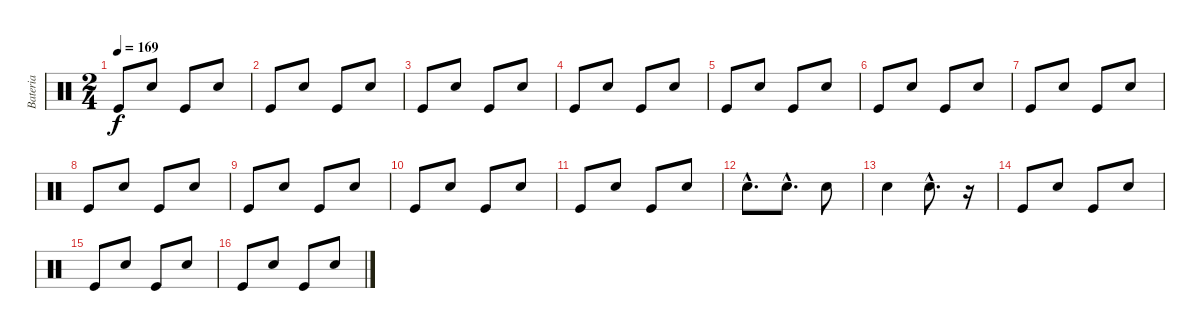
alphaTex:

\track ("Bateria" "Bateria") {instrument percussion}
\staff {score}
\articulation defaults
\ts (2 4)
\tempo 169
\clef neutral
\ks c "Kick (hit)".8{dy f} "Snare (hit) 2".8 "Kick (hit)".8 "Snare (hit) 2".8
|
"Kick (hit)".8 "Snare (hit) 2".8 "Kick (hit)".8 "Snare (hit) 2".8 |
"Kick (hit)".8 "Snare (hit) 2".8 "Kick (hit)".8 "Snare (hit) 2".8 |
"Kick (hit)".8 "Snare (hit) 2".8 "Kick (hit)".8 "Snare (hit) 2".8 |
"Kick (hit)".8 "Snare (hit) 2".8 "Kick (hit)".8 "Snare (hit) 2".8 |
"Kick (hit)".8 "Snare (hit) 2".8 "Kick (hit)".8 "Snare (hit) 2".8 |
"Kick (hit)".8 "Snare (hit) 2".8 "Kick (hit)".8 "Snare (hit) 2".8 |
"Kick (hit)".8 "Snare (hit) 2".8 "Kick (hit)".8 "Snare (hit) 2".8 |
"Kick (hit)".8 "Snare (hit) 2".8 "Kick (hit)".8 "Snare (hit) 2".8 |
"Kick (hit)".8 "Snare (hit) 2".8 "Kick (hit)".8 "Snare (hit) 2".8 |
"Kick (hit)".8 "Snare (hit) 2".8 "Kick (hit)".8 "Snare (hit) 2".8 |
"Snare (hit) 2"{hac}.8{d} "Snare (hit) 2"{hac}.8{d} "Snare (hit) 2".8 |
"Snare (hit) 2".4 "Snare (hit) 2"{hac}.8{d} r.16 |
"Kick (hit)".8 "Snare (hit) 2".8 "Kick (hit)".8 "Snare (hit) 2".8 |
"Kick (hit)".8 "Snare (hit) 2".8 "Kick (hit)".8 "Snare (hit) 2".8 |
"Kick (hit)".8 "Snare (hit) 2".8 "Kick (hit)".8 "Snare (hit) 2".8
